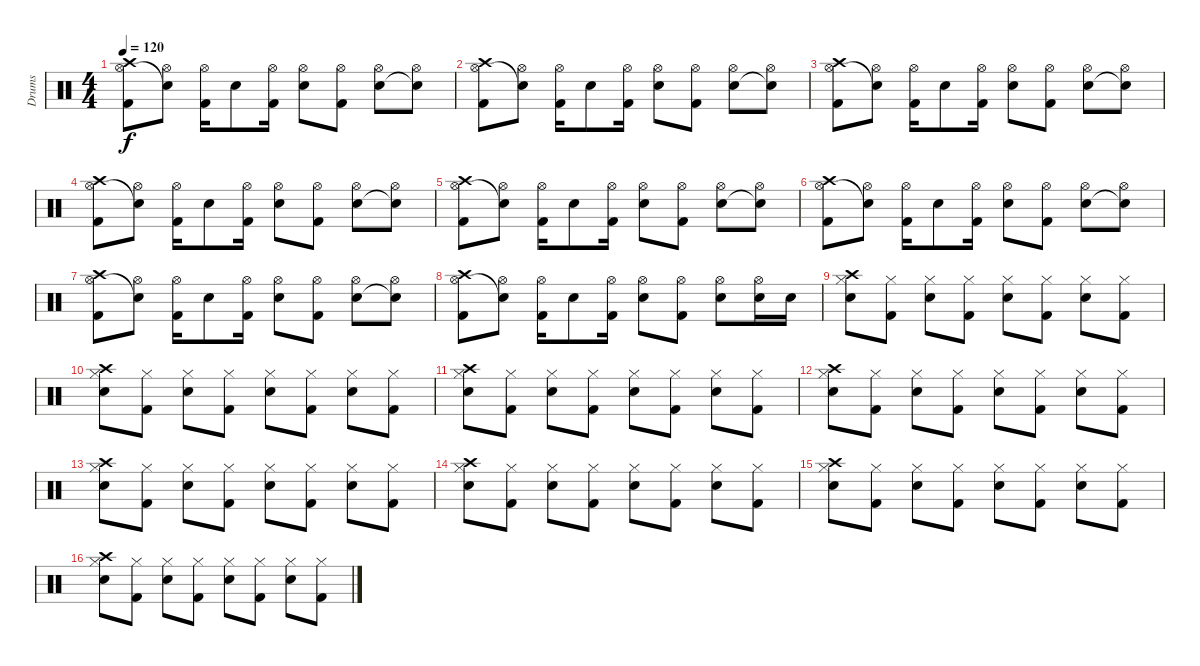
\track ("Drums" "Drums") {instrument percussion}
\staff {score}
\articulation defaults
\ts (4 4)
\tempo 120
\clef neutral
\ks c
("Crash high (hit)" "Hi-Hat (open)" "Kick (hit) 2").8{dy f} ("Hi-Hat (open)" "Snare (hit)"{t}).8 ("Hi-Hat (open)" "Kick (hit) 2").16 "Electric Snare (hit)".8 ("Hi-Hat (open)" "Kick (hit) 2").16 ("Hi-Hat (open)" "Electric Snare (hit)").8 ("Hi-Hat (open)" "Kick (hit) 2").8 ("Hi-Hat (open)" "Snare (hit) 2").8 ("Hi-Hat (open)" "Snare (hit)"{t}).8 |
("Crash high (hit)" "Hi-Hat (open)" "Kick (hit) 2").8 ("Hi-Hat (open)" "Snare (hit)"{t}).8 ("Hi-Hat (open)" "Kick (hit) 2").16 "Electric Snare (hit)".8 ("Hi-Hat (open)" "Kick (hit) 2").16 ("Hi-Hat (open)" "Electric Snare (hit)").8 ("Hi-Hat (open)" "Kick (hit) 2").8 ("Hi-Hat (open)" "Snare (hit) 2").8 ("Hi-Hat (open)" "Snare (hit)"{t}).8 |
("Crash high (hit)" "Hi-Hat (open)" "Kick (hit) 2").8 ("Hi-Hat (open)" "Snare (hit)"{t}).8 ("Hi-Hat (open)" "Kick (hit) 2").16 "Electric Snare (hit)".8 ("Hi-Hat (open)" "Kick (hit) 2").16 ("Hi-Hat (open)" "Electric Snare (hit)").8 ("Hi-Hat (open)" "Kick (hit) 2").8 ("Hi-Hat (open)" "Snare (hit) 2").8 ("Hi-Hat (open)" "Snare (hit)"{t}).8 |
("Crash high (hit)" "Hi-Hat (open)" "Kick (hit) 2").8 ("Hi-Hat (open)" "Snare (hit)"{t}).8 ("Hi-Hat (open)" "Kick (hit) 2").16 "Electric Snare (hit)".8 ("Hi-Hat (open)" "Kick (hit) 2").16 ("Hi-Hat (open)" "Electric Snare (hit)").8 ("Hi-Hat (open)" "Kick (hit) 2").8 ("Hi-Hat (open)" "Snare (hit) 2").8 ("Hi-Hat (open)" "Snare (hit)"{t}).8 |
("Crash high (hit)" "Hi-Hat (open)" "Kick (hit) 2").8 ("Hi-Hat (open)" "Snare (hit)"{t}).8 ("Hi-Hat (open)" "Kick (hit) 2").16 "Electric Snare (hit)".8 ("Hi-Hat (open)" "Kick (hit) 2").16 ("Hi-Hat (open)" "Electric Snare (hit)").8 ("Hi-Hat (open)" "Kick (hit) 2").8 ("Hi-Hat (open)" "Snare (hit) 2").8 ("Hi-Hat (open)" "Snare (hit)"{t}).8 |
("Crash high (hit)" "Hi-Hat (open)" "Kick (hit) 2").8 ("Hi-Hat (open)" "Snare (hit)"{t}).8 ("Hi-Hat (open)" "Kick (hit) 2").16 "Electric Snare (hit)".8 ("Hi-Hat (open)" "Kick (hit) 2").16 ("Hi-Hat (open)" "Electric Snare (hit)").8 ("Hi-Hat (open)" "Kick (hit) 2").8 ("Hi-Hat (open)" "Snare (hit) 2").8 ("Hi-Hat (open)" "Snare (hit)"{t}).8 |
("Crash high (hit)" "Hi-Hat (open)" "Kick (hit) 2").8 ("Hi-Hat (open)" "Snare (hit)"{t}).8 ("Hi-Hat (open)" "Kick (hit) 2").16 "Electric Snare (hit)".8 ("Hi-Hat (open)" "Kick (hit) 2").16 ("Hi-Hat (open)" "Electric Snare (hit)").8 ("Hi-Hat (open)" "Kick (hit) 2").8 ("Hi-Hat (open)" "Snare (hit) 2").8 ("Hi-Hat (open)" "Snare (hit)"{t}).8 |
("Crash high (hit)" "Hi-Hat (open)" "Kick (hit) 2").8 ("Hi-Hat (open)" "Snare (hit)"{t}).8 ("Hi-Hat (open)" "Kick (hit) 2").16 "Electric Snare (hit)".8 ("Hi-Hat (open)" "Kick (hit) 2").16 ("Hi-Hat (open)" "Electric Snare (hit)").8 ("Hi-Hat (open)" "Kick (hit) 2").8 ("Hi-Hat (open)" "Electric Snare (hit)").8 ("Hi-Hat (open)" "Electric Snare (hit)").16 "Electric Snare (hit)".16 |
("Crash high (hit)" "Hi-Hat (closed)" "Electric Snare (hit)").8 ("Hi-Hat (closed)" "Kick (hit) 2").8 ("Hi-Hat (closed)" "Electric Snare (hit)").8 ("Hi-Hat (closed)" "Kick (hit) 2").8 ("Hi-Hat (closed)" "Electric Snare (hit)").8 ("Hi-Hat (closed)" "Kick (hit) 2").8 ("Hi-Hat (closed)" "Electric Snare (hit)").8 ("Hi-Hat (closed)" "Kick (hit) 2").8 |
("Crash high (hit)" "Hi-Hat (closed)" "Electric Snare (hit)").8 ("Hi-Hat (closed)" "Kick (hit) 2").8 ("Hi-Hat (closed)" "Electric Snare (hit)").8 ("Hi-Hat (closed)" "Kick (hit) 2").8 ("Hi-Hat (closed)" "Electric Snare (hit)").8 ("Hi-Hat (closed)" "Kick (hit) 2").8 ("Hi-Hat (closed)" "Electric Snare (hit)").8 ("Hi-Hat (closed)" "Kick (hit) 2").8 |
("Crash high (hit)" "Hi-Hat (closed)" "Electric Snare (hit)").8 ("Hi-Hat (closed)" "Kick (hit) 2").8 ("Hi-Hat (closed)" "Electric Snare (hit)").8 ("Hi-Hat (closed)" "Kick (hit) 2").8 ("Hi-Hat (closed)" "Electric Snare (hit)").8 ("Hi-Hat (closed)" "Kick (hit) 2").8 ("Hi-Hat (closed)" "Electric Snare (hit)").8 ("Hi-Hat (closed)" "Kick (hit) 2").8 |
("Crash high (hit)" "Hi-Hat (closed)" "Electric Snare (hit)").8 ("Hi-Hat (closed)" "Kick (hit) 2").8 ("Hi-Hat (closed)" "Electric Snare (hit)").8 ("Hi-Hat (closed)" "Kick (hit) 2").8 ("Hi-Hat (closed)" "Electric Snare (hit)").8 ("Hi-Hat (closed)" "Kick (hit) 2").8 ("Hi-Hat (closed)" "Electric Snare (hit)").8 ("Hi-Hat (closed)" "Kick (hit) 2").8 |
("Crash high (hit)" "Hi-Hat (closed)" "Electric Snare (hit)").8 ("Hi-Hat (closed)" "Kick (hit) 2").8 ("Hi-Hat (closed)" "Electric Snare (hit)").8 ("Hi-Hat (closed)" "Kick (hit) 2").8 ("Hi-Hat (closed)" "Electric Snare (hit)").8 ("Hi-Hat (closed)" "Kick (hit) 2").8 ("Hi-Hat (closed)" "Electric Snare (hit)").8 ("Hi-Hat (closed)" "Kick (hit) 2").8 |
("Crash high (hit)" "Hi-Hat (closed)" "Electric Snare (hit)").8 ("Hi-Hat (closed)" "Kick (hit) 2").8 ("Hi-Hat (closed)" "Electric Snare (hit)").8 ("Hi-Hat (closed)" "Kick (hit) 2").8 ("Hi-Hat (closed)" "Electric Snare (hit)").8 ("Hi-Hat (closed)" "Kick (hit) 2").8 ("Hi-Hat (closed)" "Electric Snare (hit)").8 ("Hi-Hat (closed)" "Kick (hit) 2").8 |
("Crash high (hit)" "Hi-Hat (closed)" "Electric Snare (hit)").8 ("Hi-Hat (closed)" "Kick (hit) 2").8 ("Hi-Hat (closed)" "Electric Snare (hit)").8 ("Hi-Hat (closed)" "Kick (hit) 2").8 ("Hi-Hat (closed)" "Electric Snare (hit)").8 ("Hi-Hat (closed)" "Kick (hit) 2").8 ("Hi-Hat (closed)" "Electric Snare (hit)").8 ("Hi-Hat (closed)" "Kick (hit) 2").8 |
("Crash high (hit)" "Hi-Hat (closed)" "Electric Snare (hit)").8 ("Hi-Hat (closed)" "Kick (hit) 2").8 ("Hi-Hat (closed)" "Electric Snare (hit)").8 ("Hi-Hat (closed)" "Kick (hit) 2").8 ("Hi-Hat (closed)" "Electric Snare (hit)").8 ("Hi-Hat (closed)" "Kick (hit) 2").8 ("Hi-Hat (closed)" "Electric Snare (hit)").8 ("Hi-Hat (closed)" "Kick (hit) 2").8
